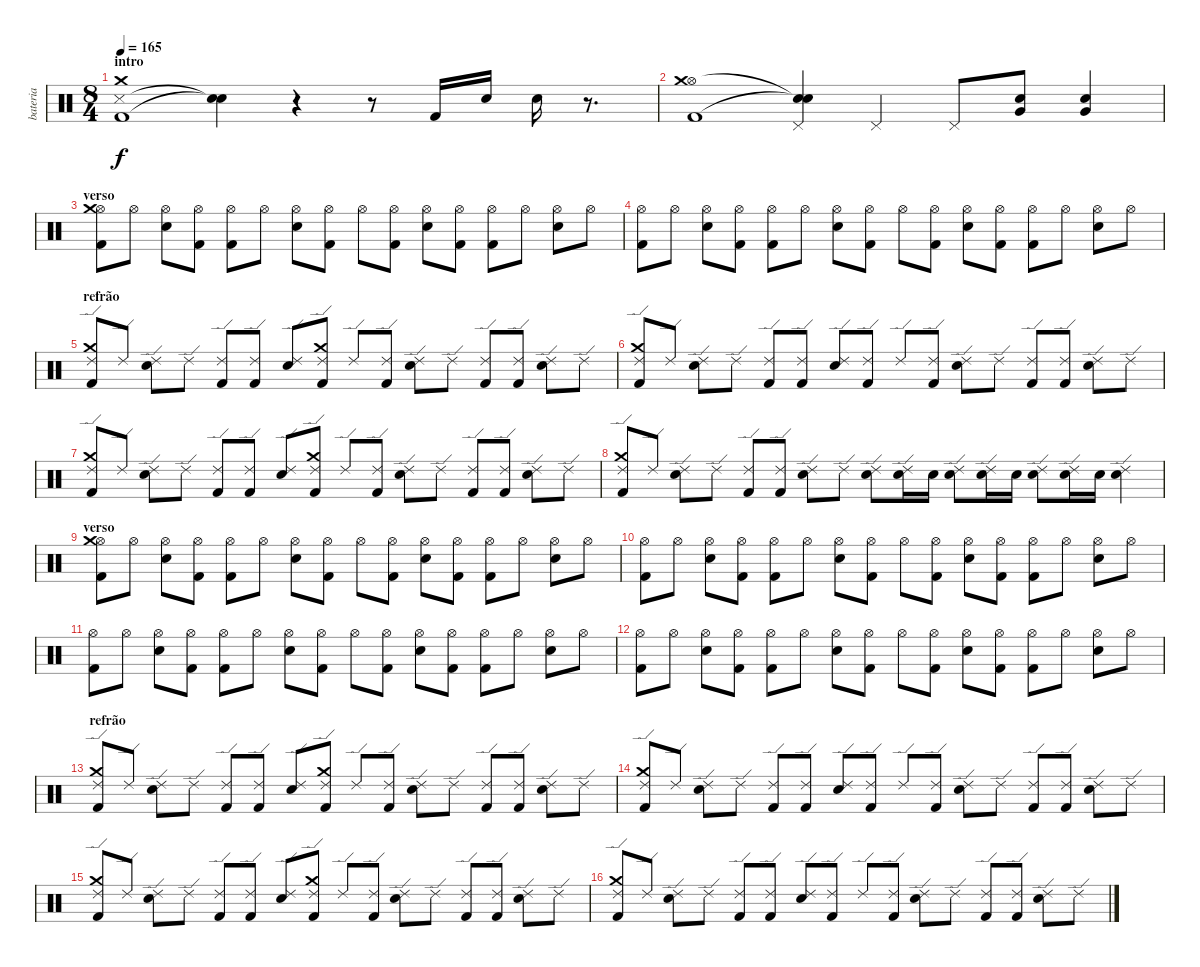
\track ("bateria" "bateria") {instrument percussion}
\staff {score}
\articulation defaults
\ts (8 4)
\section ("" "intro")
\tempo 165
\clef neutral
\ks c
("Snare (side stick) 3" "Kick (hit) 2" "Crash medium (hit)").1{dy f} ("Snare (hit)"{t} "Snare (hit)"{t}).4 r.4 r.8 "Kick (hit) 2".16 "Electric Snare (hit)".16 "Electric Snare (hit)".16 r.8{d} |
("Hi-Hat (open)" "Kick (hit) 2" "Crash medium (hit)").1 ("Pedal Hi-Hat (hit)" "Snare (hit)"{t} "Snare (hit)"{t}).4 "Pedal Hi-Hat (hit)".4 "Pedal Hi-Hat (hit)".8 ("Electric Snare (hit)" "Very Low Tom (hit)").8 ("Electric Snare (hit)" "Very Low Tom (hit)").4 |
\section ("" "verso")
("Hi-Hat (open)" "Kick (hit) 2" "Crash medium (hit)").8 "Hi-Hat (open)".8 ("Hi-Hat (open)" "Electric Snare (hit)").8 ("Hi-Hat (open)" "Kick (hit) 2").8 ("Hi-Hat (open)" "Kick (hit) 2").8 "Hi-Hat (open)".8 ("Hi-Hat (open)" "Electric Snare (hit)").8 ("Hi-Hat (open)" "Kick (hit) 2").8 "Hi-Hat (open)".8 ("Hi-Hat (open)" "Kick (hit) 2").8 ("Hi-Hat (open)" "Electric Snare (hit)").8 ("Hi-Hat (open)" "Kick (hit) 2").8 ("Hi-Hat (open)" "Kick (hit) 2").8 "Hi-Hat (open)".8 ("Hi-Hat (open)" "Electric Snare (hit)").8 "Hi-Hat (open)".8 |
("Hi-Hat (open)" "Kick (hit) 2").8 "Hi-Hat (open)".8 ("Hi-Hat (open)" "Electric Snare (hit)").8 ("Hi-Hat (open)" "Kick (hit) 2").8 ("Hi-Hat (open)" "Kick (hit) 2").8 "Hi-Hat (open)".8 ("Hi-Hat (open)" "Electric Snare (hit)").8 ("Hi-Hat (open)" "Kick (hit) 2").8 "Hi-Hat (open)".8 ("Hi-Hat (open)" "Kick (hit) 2").8 ("Hi-Hat (open)" "Electric Snare (hit)").8 ("Hi-Hat (open)" "Kick (hit) 2").8 ("Hi-Hat (open)" "Kick (hit) 2").8 "Hi-Hat (open)".8 ("Hi-Hat (open)" "Electric Snare (hit)").8 "Hi-Hat (open)".8 |
\section ("" "refrão")
("Ride (edge) 2" "Kick (hit) 2" "Crash medium (hit)").8 "Ride (edge) 2".8 ("Ride (edge) 2" "Electric Snare (hit)").8 "Ride (edge) 2".8 ("Ride (edge) 2" "Kick (hit) 2").8 ("Ride (edge) 2" "Kick (hit) 2").8 ("Ride (edge) 2" "Electric Snare (hit)").8 ("Ride (edge) 2" "Kick (hit) 2" "Crash medium (hit)").8 "Ride (edge) 2".8 ("Ride (edge) 2" "Kick (hit) 2").8 ("Ride (edge) 2" "Electric Snare (hit)").8 "Ride (edge) 2".8 ("Ride (edge) 2" "Kick (hit) 2").8 ("Ride (edge) 2" "Kick (hit) 2").8 ("Ride (edge) 2" "Electric Snare (hit)").8 "Ride (edge) 2".8 |
("Ride (edge) 2" "Kick (hit) 2" "Crash medium (hit)").8 "Ride (edge) 2".8 ("Ride (edge) 2" "Electric Snare (hit)").8 "Ride (edge) 2".8 ("Ride (edge) 2" "Kick (hit) 2").8 ("Ride (edge) 2" "Kick (hit) 2").8 ("Ride (edge) 2" "Electric Snare (hit)").8 ("Ride (edge) 2" "Kick (hit) 2").8 "Ride (edge) 2".8 ("Ride (edge) 2" "Kick (hit) 2").8 ("Ride (edge) 2" "Electric Snare (hit)").8 "Ride (edge) 2".8 ("Ride (edge) 2" "Kick (hit) 2").8 ("Ride (edge) 2" "Kick (hit) 2").8 ("Ride (edge) 2" "Electric Snare (hit)").8 "Ride (edge) 2".8 |
("Ride (edge) 2" "Kick (hit) 2" "Crash medium (hit)").8 "Ride (edge) 2".8 ("Ride (edge) 2" "Electric Snare (hit)").8 "Ride (edge) 2".8 ("Ride (edge) 2" "Kick (hit) 2").8 ("Ride (edge) 2" "Kick (hit) 2").8 ("Ride (edge) 2" "Electric Snare (hit)").8 ("Ride (edge) 2" "Kick (hit) 2" "Crash medium (hit)").8 "Ride (edge) 2".8 ("Ride (edge) 2" "Kick (hit) 2").8 ("Ride (edge) 2" "Electric Snare (hit)").8 "Ride (edge) 2".8 ("Ride (edge) 2" "Kick (hit) 2").8 ("Ride (edge) 2" "Kick (hit) 2").8 ("Ride (edge) 2" "Electric Snare (hit)").8 "Ride (edge) 2".8 |
("Ride (edge) 2" "Kick (hit) 2" "Crash medium (hit)").8 "Ride (edge) 2".8 ("Ride (edge) 2" "Electric Snare (hit)").8 "Ride (edge) 2".8 ("Ride (edge) 2" "Kick (hit) 2").8 ("Ride (edge) 2" "Kick (hit) 2").8 ("Ride (edge) 2" "Electric Snare (hit)").8 "Ride (edge) 2".8 ("Ride (edge) 2" "Electric Snare (hit)").8 ("Ride (edge) 2" "Electric Snare (hit)").16 "Electric Snare (hit)".16 ("Ride (edge) 2" "Electric Snare (hit)").8 ("Ride (edge) 2" "Electric Snare (hit)").16 "Electric Snare (hit)".16 ("Ride (edge) 2" "Electric Snare (hit)").8 ("Ride (edge) 2" "Electric Snare (hit)").16 "Electric Snare (hit)".16 ("Ride (edge) 2" "Electric Snare (hit)").4 |
\section ("" "verso")
("Hi-Hat (open)" "Kick (hit) 2" "Crash medium (hit)").8 "Hi-Hat (open)".8 ("Hi-Hat (open)" "Electric Snare (hit)").8 ("Hi-Hat (open)" "Kick (hit) 2").8 ("Hi-Hat (open)" "Kick (hit) 2").8 "Hi-Hat (open)".8 ("Hi-Hat (open)" "Electric Snare (hit)").8 ("Hi-Hat (open)" "Kick (hit) 2").8 "Hi-Hat (open)".8 ("Hi-Hat (open)" "Kick (hit) 2").8 ("Hi-Hat (open)" "Electric Snare (hit)").8 ("Hi-Hat (open)" "Kick (hit) 2").8 ("Hi-Hat (open)" "Kick (hit) 2").8 "Hi-Hat (open)".8 ("Hi-Hat (open)" "Electric Snare (hit)").8 "Hi-Hat (open)".8 |
("Hi-Hat (open)" "Kick (hit) 2").8 "Hi-Hat (open)".8 ("Hi-Hat (open)" "Electric Snare (hit)").8 ("Hi-Hat (open)" "Kick (hit) 2").8 ("Hi-Hat (open)" "Kick (hit) 2").8 "Hi-Hat (open)".8 ("Hi-Hat (open)" "Electric Snare (hit)").8 ("Hi-Hat (open)" "Kick (hit) 2").8 "Hi-Hat (open)".8 ("Hi-Hat (open)" "Kick (hit) 2").8 ("Hi-Hat (open)" "Electric Snare (hit)").8 ("Hi-Hat (open)" "Kick (hit) 2").8 ("Hi-Hat (open)" "Kick (hit) 2").8 "Hi-Hat (open)".8 ("Hi-Hat (open)" "Electric Snare (hit)").8 "Hi-Hat (open)".8 |
("Hi-Hat (open)" "Kick (hit) 2").8 "Hi-Hat (open)".8 ("Hi-Hat (open)" "Electric Snare (hit)").8 ("Hi-Hat (open)" "Kick (hit) 2").8 ("Hi-Hat (open)" "Kick (hit) 2").8 "Hi-Hat (open)".8 ("Hi-Hat (open)" "Electric Snare (hit)").8 ("Hi-Hat (open)" "Kick (hit) 2").8 "Hi-Hat (open)".8 ("Hi-Hat (open)" "Kick (hit) 2").8 ("Hi-Hat (open)" "Electric Snare (hit)").8 ("Hi-Hat (open)" "Kick (hit) 2").8 ("Hi-Hat (open)" "Kick (hit) 2").8 "Hi-Hat (open)".8 ("Hi-Hat (open)" "Electric Snare (hit)").8 "Hi-Hat (open)".8 |
("Hi-Hat (open)" "Kick (hit) 2").8 "Hi-Hat (open)".8 ("Hi-Hat (open)" "Electric Snare (hit)").8 ("Hi-Hat (open)" "Kick (hit) 2").8 ("Hi-Hat (open)" "Kick (hit) 2").8 "Hi-Hat (open)".8 ("Hi-Hat (open)" "Electric Snare (hit)").8 ("Hi-Hat (open)" "Kick (hit) 2").8 "Hi-Hat (open)".8 ("Hi-Hat (open)" "Kick (hit) 2").8 ("Hi-Hat (open)" "Electric Snare (hit)").8 ("Hi-Hat (open)" "Kick (hit) 2").8 ("Hi-Hat (open)" "Kick (hit) 2").8 "Hi-Hat (open)".8 ("Hi-Hat (open)" "Electric Snare (hit)").8 "Hi-Hat (open)".8 |
\section ("" "refrão")
("Ride (edge) 2" "Kick (hit) 2" "Crash medium (hit)").8 "Ride (edge) 2".8 ("Ride (edge) 2" "Electric Snare (hit)").8 "Ride (edge) 2".8 ("Ride (edge) 2" "Kick (hit) 2").8 ("Ride (edge) 2" "Kick (hit) 2").8 ("Ride (edge) 2" "Electric Snare (hit)").8 ("Ride (edge) 2" "Kick (hit) 2" "Crash medium (hit)").8 "Ride (edge) 2".8 ("Ride (edge) 2" "Kick (hit) 2").8 ("Ride (edge) 2" "Electric Snare (hit)").8 "Ride (edge) 2".8 ("Ride (edge) 2" "Kick (hit) 2").8 ("Ride (edge) 2" "Kick (hit) 2").8 ("Ride (edge) 2" "Electric Snare (hit)").8 "Ride (edge) 2".8 |
("Ride (edge) 2" "Kick (hit) 2" "Crash medium (hit)").8 "Ride (edge) 2".8 ("Ride (edge) 2" "Electric Snare (hit)").8 "Ride (edge) 2".8 ("Ride (edge) 2" "Kick (hit) 2").8 ("Ride (edge) 2" "Kick (hit) 2").8 ("Ride (edge) 2" "Electric Snare (hit)").8 ("Ride (edge) 2" "Kick (hit) 2").8 "Ride (edge) 2".8 ("Ride (edge) 2" "Kick (hit) 2").8 ("Ride (edge) 2" "Electric Snare (hit)").8 "Ride (edge) 2".8 ("Ride (edge) 2" "Kick (hit) 2").8 ("Ride (edge) 2" "Kick (hit) 2").8 ("Ride (edge) 2" "Electric Snare (hit)").8 "Ride (edge) 2".8 |
("Ride (edge) 2" "Kick (hit) 2" "Crash medium (hit)").8 "Ride (edge) 2".8 ("Ride (edge) 2" "Electric Snare (hit)").8 "Ride (edge) 2".8 ("Ride (edge) 2" "Kick (hit) 2").8 ("Ride (edge) 2" "Kick (hit) 2").8 ("Ride (edge) 2" "Electric Snare (hit)").8 ("Ride (edge) 2" "Kick (hit) 2" "Crash medium (hit)").8 "Ride (edge) 2".8 ("Ride (edge) 2" "Kick (hit) 2").8 ("Ride (edge) 2" "Electric Snare (hit)").8 "Ride (edge) 2".8 ("Ride (edge) 2" "Kick (hit) 2").8 ("Ride (edge) 2" "Kick (hit) 2").8 ("Ride (edge) 2" "Electric Snare (hit)").8 "Ride (edge) 2".8 |
("Ride (edge) 2" "Kick (hit) 2" "Crash medium (hit)").8 "Ride (edge) 2".8 ("Ride (edge) 2" "Electric Snare (hit)").8 "Ride (edge) 2".8 ("Ride (edge) 2" "Kick (hit) 2").8 ("Ride (edge) 2" "Kick (hit) 2").8 ("Ride (edge) 2" "Electric Snare (hit)").8 ("Ride (edge) 2" "Kick (hit) 2").8 "Ride (edge) 2".8 ("Ride (edge) 2" "Kick (hit) 2").8 ("Ride (edge) 2" "Electric Snare (hit)").8 "Ride (edge) 2".8 ("Ride (edge) 2" "Kick (hit) 2").8 ("Ride (edge) 2" "Kick (hit) 2").8 ("Ride (edge) 2" "Electric Snare (hit)").8 "Ride (edge) 2".8
